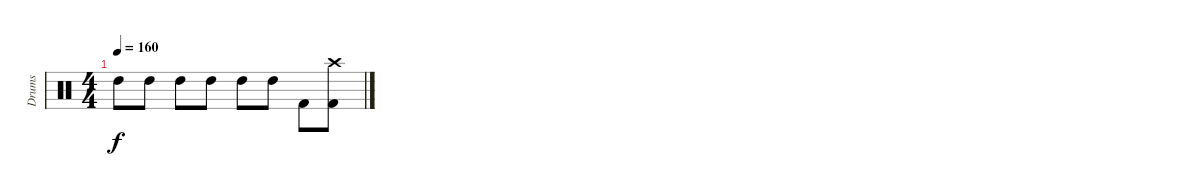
\track ("Drums" "Drums") {instrument percussion}
\staff {score}
\articulation defaults
\ts (4 4)
\tempo 160
\clef neutral
\ks c "High Tom (hit)".8{dy f} "High Tom (hit)".8 "High Tom (hit)".8 "High Tom (hit)".8 "High Tom (hit)".8 "High Tom (hit)".8 "Kick (hit) 2".8
("Crash high (hit)" "Kick (hit) 2").8
